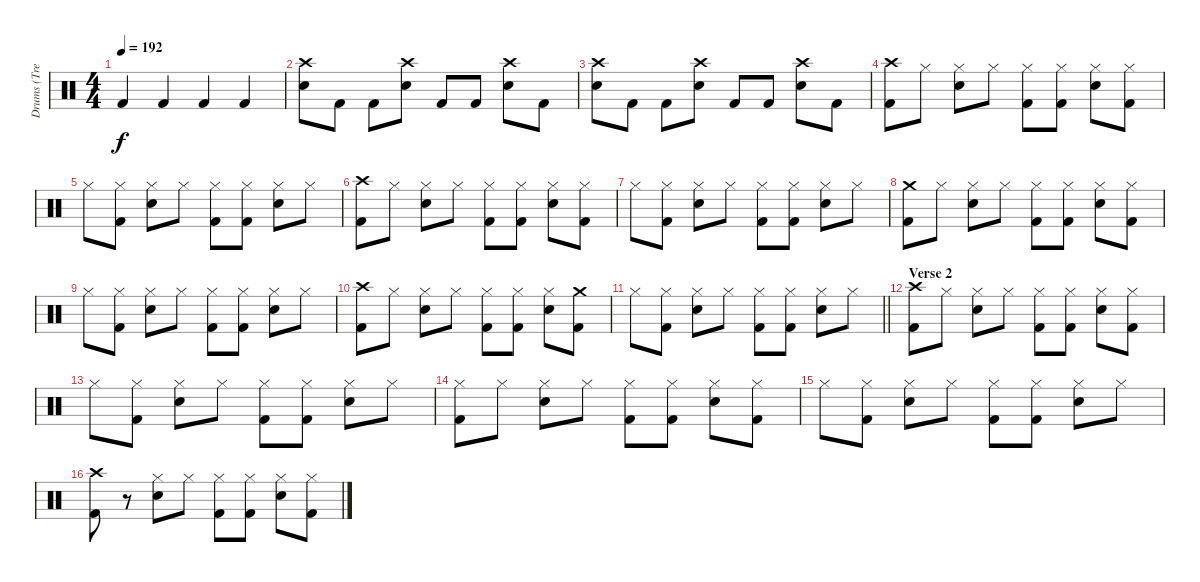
\track ("Drums (Tre Cool)" "Drums (Tre") {instrument percussion}
\staff {score}
\articulation defaults
\ts (4 4)
\tempo 192
\clef neutral
\ks c "Kick (hit) 2".4{dy f} "Kick (hit) 2".4 "Kick (hit) 2".4 "Kick (hit) 2".4
|
("Crash high (hit)" "Snare (hit) 2").8 "Kick (hit) 2".8 "Kick (hit) 2".8 ("Crash high (hit)" "Snare (hit) 2").8 "Kick (hit) 2".8 "Kick (hit) 2".8 ("Crash high (hit)" "Snare (hit) 2").8 "Kick (hit) 2".8 |
("Crash high (hit)" "Snare (hit) 2").8 "Kick (hit) 2".8 "Kick (hit) 2".8 ("Crash high (hit)" "Snare (hit) 2").8 "Kick (hit) 2".8 "Kick (hit) 2".8 ("Crash high (hit)" "Snare (hit) 2").8 "Kick (hit) 2".8 |
("Crash high (hit)" "Kick (hit) 2").8 "Hi-Hat (closed)".8 ("Hi-Hat (closed)" "Snare (hit) 2").8 "Hi-Hat (closed)".8 ("Hi-Hat (closed)" "Kick (hit) 2").8 ("Hi-Hat (closed)" "Kick (hit) 2").8 ("Hi-Hat (closed)" "Snare (hit) 2").8 ("Hi-Hat (closed)" "Kick (hit) 2").8 |
"Hi-Hat (closed)".8 ("Hi-Hat (closed)" "Kick (hit) 2").8 ("Hi-Hat (closed)" "Snare (hit) 2").8 "Hi-Hat (closed)".8 ("Hi-Hat (closed)" "Kick (hit) 2").8 ("Hi-Hat (closed)" "Kick (hit) 2").8 ("Hi-Hat (closed)" "Snare (hit) 2").8 "Hi-Hat (closed)".8 |
("Crash high (hit)" "Kick (hit) 2").8 "Hi-Hat (closed)".8 ("Hi-Hat (closed)" "Snare (hit) 2").8 "Hi-Hat (closed)".8 ("Hi-Hat (closed)" "Kick (hit) 2").8 ("Hi-Hat (closed)" "Kick (hit) 2").8 ("Hi-Hat (closed)" "Snare (hit) 2").8 ("Hi-Hat (closed)" "Kick (hit) 2").8 |
"Hi-Hat (closed)".8 ("Hi-Hat (closed)" "Kick (hit) 2").8 ("Hi-Hat (closed)" "Snare (hit) 2").8 "Hi-Hat (closed)".8 ("Hi-Hat (closed)" "Kick (hit) 2").8 ("Hi-Hat (closed)" "Kick (hit) 2").8 ("Hi-Hat (closed)" "Snare (hit) 2").8 "Hi-Hat (closed)".8 |
("Crash medium (hit)" "Kick (hit) 2").8 "Hi-Hat (closed)".8 ("Hi-Hat (closed)" "Snare (hit) 2").8 "Hi-Hat (closed)".8 ("Hi-Hat (closed)" "Kick (hit) 2").8 ("Hi-Hat (closed)" "Kick (hit) 2").8 ("Hi-Hat (closed)" "Snare (hit) 2").8 ("Hi-Hat (closed)" "Kick (hit) 2").8 |
"Hi-Hat (closed)".8 ("Hi-Hat (closed)" "Kick (hit) 2").8 ("Hi-Hat (closed)" "Snare (hit) 2").8 "Hi-Hat (closed)".8 ("Hi-Hat (closed)" "Kick (hit) 2").8 ("Hi-Hat (closed)" "Kick (hit) 2").8 ("Hi-Hat (closed)" "Snare (hit) 2").8 "Hi-Hat (closed)".8 |
("Crash high (hit)" "Kick (hit) 2").8 "Hi-Hat (closed)".8 ("Hi-Hat (closed)" "Snare (hit) 2").8 "Hi-Hat (closed)".8 ("Hi-Hat (closed)" "Kick (hit) 2").8 ("Hi-Hat (closed)" "Kick (hit) 2").8 ("Hi-Hat (closed)" "Snare (hit) 2").8 ("Crash medium (hit)" "Kick (hit) 2").8 |
\barLineRight lightlight "Hi-Hat (closed)".8
("Hi-Hat (closed)" "Kick (hit) 2").8 ("Hi-Hat (closed)" "Snare (hit) 2").8 "Hi-Hat (closed)".8 ("Hi-Hat (closed)" "Kick (hit) 2").8 ("Hi-Hat (closed)" "Kick (hit) 2").8 ("Hi-Hat (closed)" "Snare (hit) 2").8 "Hi-Hat (closed)".8 |
\section ("" "Verse 2")
("Crash high (hit)" "Kick (hit) 2").8 "Hi-Hat (closed)".8 ("Hi-Hat (closed)" "Snare (hit) 2").8 "Hi-Hat (closed)".8 ("Hi-Hat (closed)" "Kick (hit) 2").8 ("Hi-Hat (closed)" "Kick (hit) 2").8 ("Hi-Hat (closed)" "Snare (hit) 2").8 ("Hi-Hat (closed)" "Kick (hit) 2").8 |
"Hi-Hat (closed)".8 ("Hi-Hat (closed)" "Kick (hit) 2").8 ("Hi-Hat (closed)" "Snare (hit) 2").8 "Hi-Hat (closed)".8 ("Hi-Hat (closed)" "Kick (hit) 2").8 ("Hi-Hat (closed)" "Kick (hit) 2").8 ("Hi-Hat (closed)" "Snare (hit) 2").8 "Hi-Hat (closed)".8 |
("Hi-Hat (closed)" "Kick (hit) 2").8 "Hi-Hat (closed)".8 ("Hi-Hat (closed)" "Snare (hit) 2").8 "Hi-Hat (closed)".8 ("Hi-Hat (closed)" "Kick (hit) 2").8 ("Hi-Hat (closed)" "Kick (hit) 2").8 ("Hi-Hat (closed)" "Snare (hit) 2").8 ("Hi-Hat (closed)" "Kick (hit) 2").8 |
"Hi-Hat (closed)".8 ("Hi-Hat (closed)" "Kick (hit) 2").8 ("Hi-Hat (closed)" "Snare (hit) 2").8 "Hi-Hat (closed)".8 ("Hi-Hat (closed)" "Kick (hit) 2").8 ("Hi-Hat (closed)" "Kick (hit) 2").8 ("Hi-Hat (closed)" "Snare (hit) 2").8 "Hi-Hat (closed)".8 |
("Crash high (hit)" "Kick (hit) 2").8 r.8 ("Hi-Hat (closed)" "Snare (hit) 2").8 "Hi-Hat (closed)".8 ("Hi-Hat (closed)" "Kick (hit) 2").8 ("Hi-Hat (closed)" "Kick (hit) 2").8 ("Hi-Hat (closed)" "Snare (hit) 2").8 ("Hi-Hat (closed)" "Kick (hit) 2").8
